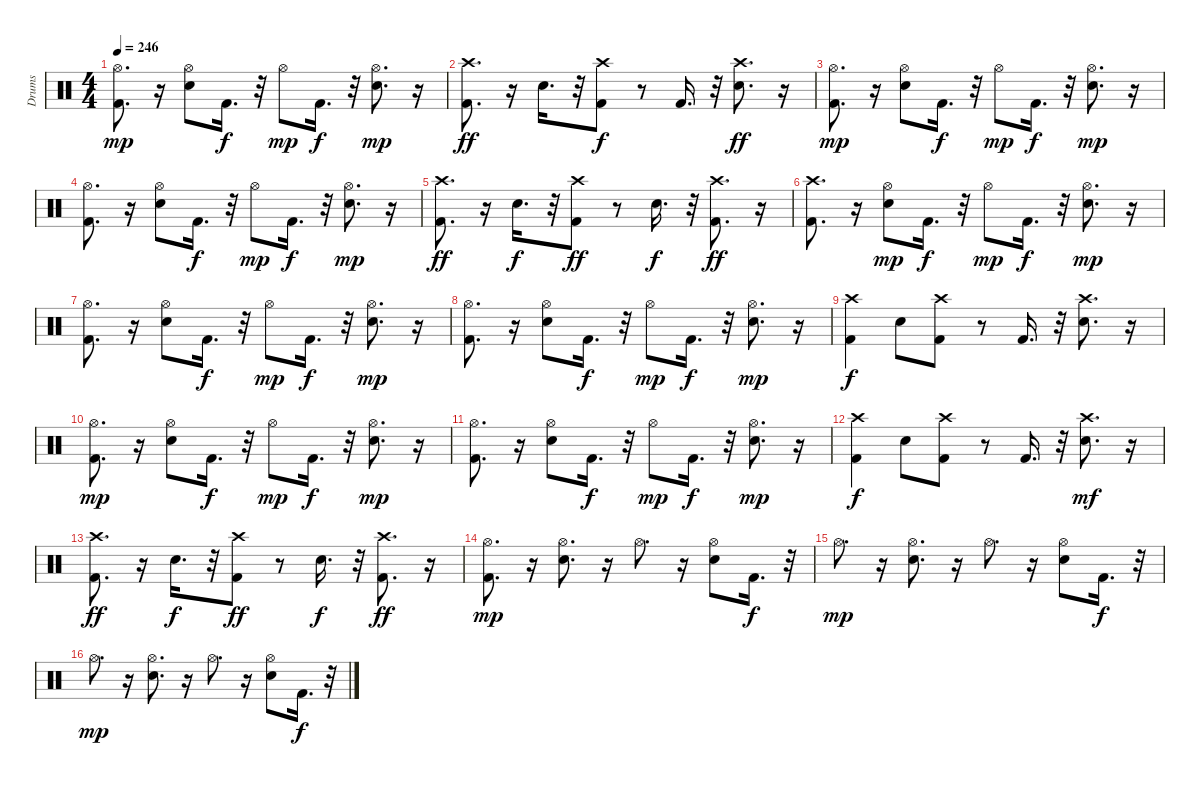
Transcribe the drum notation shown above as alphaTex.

\track ("Drums" "Drums") {instrument percussion}
\staff {score}
\articulation defaults
\ts (4 4)
\tempo 246
\clef neutral
\ks c
("Kick (hit) 2" "Hi-Hat (open)").8{d dy mp} r.16 ("Electric Snare (hit)" "Hi-Hat (open)").8 "Kick (hit) 2".16{d dy f} r.32 "Hi-Hat (open)".8{dy mp} "Kick (hit) 2".16{d dy f} r.32 ("Electric Snare (hit)" "Hi-Hat (open)").8{d dy mp} r.16 |
("Kick (hit) 2" "Crash high (hit)").8{d dy ff} r.16 "Electric Snare (hit)".16{d} r.32 ("Kick (hit) 2" "Crash high (hit)").8{dy f} r.8 "Kick (hit) 2".16{d} r.32 ("Electric Snare (hit)" "Crash high (hit)").8{d dy ff} r.16 |
("Kick (hit) 2" "Hi-Hat (open)").8{d dy mp} r.16 ("Electric Snare (hit)" "Hi-Hat (open)").8 "Kick (hit) 2".16{d dy f} r.32 "Hi-Hat (open)".8{dy mp} "Kick (hit) 2".16{d dy f} r.32 ("Electric Snare (hit)" "Hi-Hat (open)").8{d dy mp} r.16 |
("Kick (hit) 2" "Hi-Hat (open)").8{d} r.16 ("Electric Snare (hit)" "Hi-Hat (open)").8 "Kick (hit) 2".16{d dy f} r.32 "Hi-Hat (open)".8{dy mp} "Kick (hit) 2".16{d dy f} r.32 ("Electric Snare (hit)" "Hi-Hat (open)").8{d dy mp} r.16 |
("Kick (hit) 2" "Crash high (hit)").8{d dy ff} r.16 "Electric Snare (hit)".16{d dy f} r.32 ("Kick (hit) 2" "Crash high (hit)").8{dy ff} r.8 "Electric Snare (hit)".16{d dy f} r.32 ("Kick (hit) 2" "Crash high (hit)").8{d dy ff} r.16 |
("Kick (hit) 2" "Crash high (hit)").8{d} r.16 ("Electric Snare (hit)" "Hi-Hat (open)").8{dy mp} "Kick (hit) 2".16{d dy f} r.32 "Hi-Hat (open)".8{dy mp} "Kick (hit) 2".16{d dy f} r.32 ("Electric Snare (hit)" "Hi-Hat (open)").8{d dy mp} r.16 |
("Kick (hit) 2" "Hi-Hat (open)").8{d} r.16 ("Electric Snare (hit)" "Hi-Hat (open)").8 "Kick (hit) 2".16{d dy f} r.32 "Hi-Hat (open)".8{dy mp} "Kick (hit) 2".16{d dy f} r.32 ("Electric Snare (hit)" "Hi-Hat (open)").8{d dy mp} r.16 |
("Kick (hit) 2" "Hi-Hat (open)").8{d} r.16 ("Electric Snare (hit)" "Hi-Hat (open)").8 "Kick (hit) 2".16{d dy f} r.32 "Hi-Hat (open)".8{dy mp} "Kick (hit) 2".16{d dy f} r.32 ("Electric Snare (hit)" "Hi-Hat (open)").8{d dy mp} r.16 |
("Kick (hit) 2" "Crash high (hit)").4{dy f} "Electric Snare (hit)".8 ("Kick (hit) 2" "Crash high (hit)").8 r.8 "Kick (hit) 2".16{d} r.32 ("Crash high (hit)" "Electric Snare (hit)").8{d} r.16 |
("Kick (hit) 2" "Hi-Hat (open)").8{d dy mp} r.16 ("Electric Snare (hit)" "Hi-Hat (open)").8 "Kick (hit) 2".16{d dy f} r.32 "Hi-Hat (open)".8{dy mp} "Kick (hit) 2".16{d dy f} r.32 ("Electric Snare (hit)" "Hi-Hat (open)").8{d dy mp} r.16 |
("Kick (hit) 2" "Hi-Hat (open)").8{d} r.16 ("Electric Snare (hit)" "Hi-Hat (open)").8 "Kick (hit) 2".16{d dy f} r.32 "Hi-Hat (open)".8{dy mp} "Kick (hit) 2".16{d dy f} r.32 ("Electric Snare (hit)" "Hi-Hat (open)").8{d dy mp} r.16 |
("Kick (hit) 2" "Crash high (hit)").4{dy f} "Electric Snare (hit)".8 ("Kick (hit) 2" "Crash high (hit)").8 r.8 "Kick (hit) 2".16{d} r.32 ("Crash high (hit)" "Electric Snare (hit)").8{d dy mf} r.16 |
("Kick (hit) 2" "Crash high (hit)").8{d dy ff} r.16 "Electric Snare (hit)".16{d dy f} r.32 ("Kick (hit) 2" "Crash high (hit)").8{dy ff} r.8 "Electric Snare (hit)".16{d dy f} r.32 ("Kick (hit) 2" "Crash high (hit)").8{d dy ff} r.16 |
("Kick (hit) 2" "Hi-Hat (open)").8{d dy mp} r.16 ("Electric Snare (hit)" "Hi-Hat (open)").8{d} r.16 "Hi-Hat (open)".8{d} r.16 ("Hi-Hat (open)" "Electric Snare (hit)").8 "Kick (hit) 2".16{d dy f} r.32 |
"Hi-Hat (open)".8{d dy mp} r.16 ("Hi-Hat (open)" "Electric Snare (hit)").8{d} r.16 "Hi-Hat (open)".8{d} r.16 ("Hi-Hat (open)" "Electric Snare (hit)").8 "Kick (hit) 2".16{d dy f} r.32 |
"Hi-Hat (open)".8{d dy mp} r.16 ("Hi-Hat (open)" "Electric Snare (hit)").8{d} r.16 "Hi-Hat (open)".8{d} r.16 ("Hi-Hat (open)" "Electric Snare (hit)").8 "Kick (hit) 2".16{d dy f} r.32
